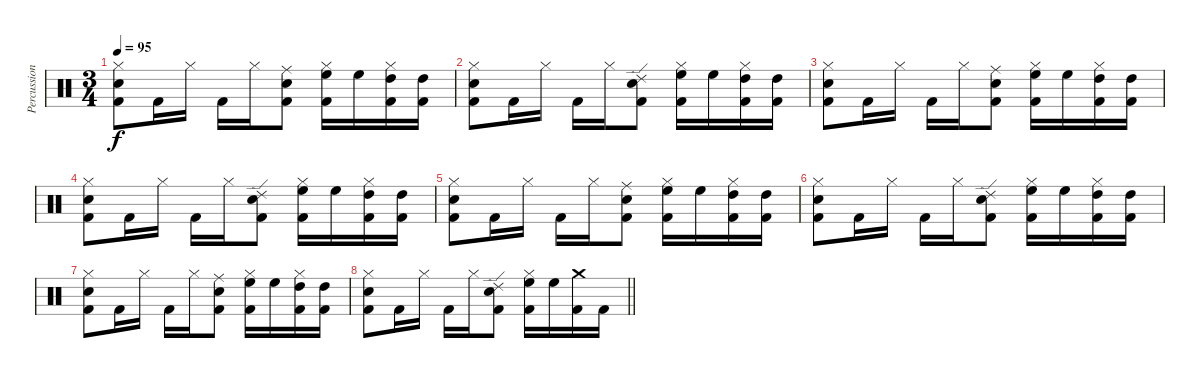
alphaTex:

\track ("Percussion" "Percussion") {instrument percussion}
\staff {score}
\articulation defaults
\ts (3 4)
\tempo 95
\clef neutral
\ks c
("Hi-Hat (closed)" "Snare (hit) 2" "Kick (hit) 2").8{dy f} "Kick (hit) 2".16 "Hi-Hat (closed)".16 "Kick (hit) 2".16 "Hi-Hat (closed)".16 ("Ride (middle)" "Snare (hit) 2" "Kick (hit) 2").8 ("Hi-Hat (closed)" "High Floor Tom (hit)" "Kick (hit) 2").16 "High Floor Tom (hit)".16 ("Hi-Hat (closed)" "High Tom (hit)" "Kick (hit) 2").16 ("High Tom (hit)" "Kick (hit) 2").16 |
("Hi-Hat (closed)" "Snare (hit) 2" "Kick (hit) 2").8 "Kick (hit) 2".16 "Hi-Hat (closed)".16 "Kick (hit) 2".16 "Hi-Hat (closed)".16 ("Ride (edge) 2" "Snare (hit) 2" "Kick (hit) 2").8 ("Hi-Hat (closed)" "High Floor Tom (hit)" "Kick (hit) 2").16 "High Floor Tom (hit)".16 ("Hi-Hat (closed)" "High Tom (hit)" "Kick (hit) 2").16 ("High Tom (hit)" "Kick (hit) 2").16 |
("Hi-Hat (closed)" "Snare (hit) 2" "Kick (hit) 2").8 "Kick (hit) 2".16 "Hi-Hat (closed)".16 "Kick (hit) 2".16 "Hi-Hat (closed)".16 ("Ride (middle)" "Snare (hit) 2" "Kick (hit) 2").8 ("Hi-Hat (closed)" "High Floor Tom (hit)" "Kick (hit) 2").16 "High Floor Tom (hit)".16 ("Hi-Hat (closed)" "High Tom (hit)" "Kick (hit) 2").16 ("High Tom (hit)" "Kick (hit) 2").16 |
("Hi-Hat (closed)" "Snare (hit) 2" "Kick (hit) 2").8 "Kick (hit) 2".16 "Hi-Hat (closed)".16 "Kick (hit) 2".16 "Hi-Hat (closed)".16 ("Ride (edge) 2" "Snare (hit) 2" "Kick (hit) 2").8 ("Hi-Hat (closed)" "High Floor Tom (hit)" "Kick (hit) 2").16 "High Floor Tom (hit)".16 ("Hi-Hat (closed)" "High Tom (hit)" "Kick (hit) 2").16 ("High Tom (hit)" "Kick (hit) 2").16 |
("Hi-Hat (closed)" "Snare (hit) 2" "Kick (hit) 2").8 "Kick (hit) 2".16 "Hi-Hat (closed)".16 "Kick (hit) 2".16 "Hi-Hat (closed)".16 ("Ride (middle)" "Snare (hit) 2" "Kick (hit) 2").8 ("Hi-Hat (closed)" "High Floor Tom (hit)" "Kick (hit) 2").16 "High Floor Tom (hit)".16 ("Hi-Hat (closed)" "High Tom (hit)" "Kick (hit) 2").16 ("High Tom (hit)" "Kick (hit) 2").16 |
("Hi-Hat (closed)" "Snare (hit) 2" "Kick (hit) 2").8 "Kick (hit) 2".16 "Hi-Hat (closed)".16 "Kick (hit) 2".16 "Hi-Hat (closed)".16 ("Ride (edge) 2" "Snare (hit) 2" "Kick (hit) 2").8 ("Hi-Hat (closed)" "High Floor Tom (hit)" "Kick (hit) 2").16 "High Floor Tom (hit)".16 ("Hi-Hat (closed)" "High Tom (hit)" "Kick (hit) 2").16 ("High Tom (hit)" "Kick (hit) 2").16 |
("Hi-Hat (closed)" "Snare (hit) 2" "Kick (hit) 2").8 "Kick (hit) 2".16 "Hi-Hat (closed)".16 "Kick (hit) 2".16 "Hi-Hat (closed)".16 ("Ride (middle)" "Snare (hit) 2" "Kick (hit) 2").8 ("Hi-Hat (closed)" "High Floor Tom (hit)" "Kick (hit) 2").16 "High Floor Tom (hit)".16 ("Hi-Hat (closed)" "High Tom (hit)" "Kick (hit) 2").16 ("High Tom (hit)" "Kick (hit) 2").16 |
\barLineRight lightlight
("Hi-Hat (closed)" "Snare (hit) 2" "Kick (hit) 2").8 "Kick (hit) 2".16 "Hi-Hat (closed)".16 "Kick (hit) 2".16 "Hi-Hat (closed)".16 ("Ride (edge) 2" "Snare (hit) 2" "Kick (hit) 2").8 ("Hi-Hat (closed)" "High Floor Tom (hit)" "Kick (hit) 2").16 "High Floor Tom (hit)".16 ("Crash medium (hit)" "Kick (hit) 2").16 "Kick (hit) 2".16
